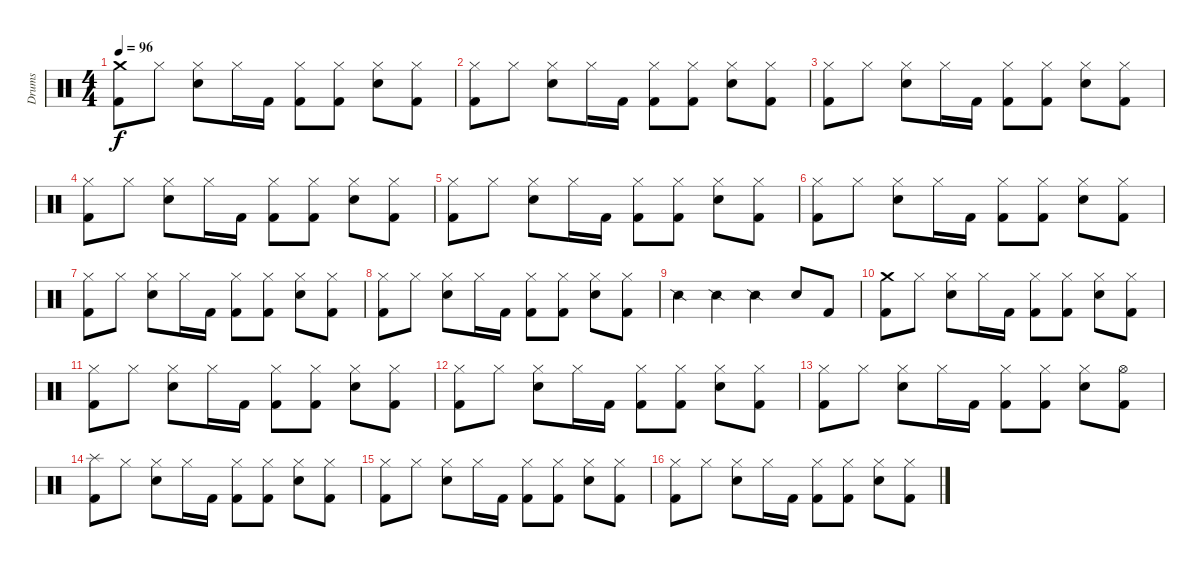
\track ("Drums" "Drums") {instrument percussion}
\staff {score}
\articulation defaults
\ts (4 4)
\tempo 96
\clef neutral
\ks c
("Crash medium (hit)" "Kick (hit) 2").8{dy f} "Hi-Hat (closed)".8 ("Hi-Hat (closed)" "Snare (hit) 2").8 "Hi-Hat (closed)".16 "Kick (hit) 2".16 ("Hi-Hat (closed)" "Kick (hit) 2").8 ("Hi-Hat (closed)" "Kick (hit) 2").8 ("Hi-Hat (closed)" "Snare (hit) 2").8 ("Hi-Hat (closed)" "Kick (hit) 2").8 |
("Hi-Hat (closed)" "Kick (hit) 2").8 "Hi-Hat (closed)".8 ("Hi-Hat (closed)" "Snare (hit) 2").8 "Hi-Hat (closed)".16 "Kick (hit) 2".16 ("Hi-Hat (closed)" "Kick (hit) 2").8 ("Hi-Hat (closed)" "Kick (hit) 2").8 ("Hi-Hat (closed)" "Snare (hit) 2").8 ("Hi-Hat (closed)" "Kick (hit) 2").8 |
("Hi-Hat (closed)" "Kick (hit) 2").8 "Hi-Hat (closed)".8 ("Hi-Hat (closed)" "Snare (hit) 2").8 "Hi-Hat (closed)".16 "Kick (hit) 2".16 ("Hi-Hat (closed)" "Kick (hit) 2").8 ("Hi-Hat (closed)" "Kick (hit) 2").8 ("Hi-Hat (closed)" "Snare (hit) 2").8 ("Hi-Hat (closed)" "Kick (hit) 2").8 |
("Hi-Hat (closed)" "Kick (hit) 2").8 "Hi-Hat (closed)".8 ("Hi-Hat (closed)" "Snare (hit) 2").8 "Hi-Hat (closed)".16 "Kick (hit) 2".16 ("Hi-Hat (closed)" "Kick (hit) 2").8 ("Hi-Hat (closed)" "Kick (hit) 2").8 ("Hi-Hat (closed)" "Snare (hit) 2").8 ("Hi-Hat (closed)" "Kick (hit) 2").8 |
("Hi-Hat (closed)" "Kick (hit) 2").8 "Hi-Hat (closed)".8 ("Hi-Hat (closed)" "Snare (hit) 2").8 "Hi-Hat (closed)".16 "Kick (hit) 2".16 ("Hi-Hat (closed)" "Kick (hit) 2").8 ("Hi-Hat (closed)" "Kick (hit) 2").8 ("Hi-Hat (closed)" "Snare (hit) 2").8 ("Hi-Hat (closed)" "Kick (hit) 2").8 |
("Hi-Hat (closed)" "Kick (hit) 2").8 "Hi-Hat (closed)".8 ("Hi-Hat (closed)" "Snare (hit) 2").8 "Hi-Hat (closed)".16 "Kick (hit) 2".16 ("Hi-Hat (closed)" "Kick (hit) 2").8 ("Hi-Hat (closed)" "Kick (hit) 2").8 ("Hi-Hat (closed)" "Snare (hit) 2").8 ("Hi-Hat (closed)" "Kick (hit) 2").8 |
("Hi-Hat (closed)" "Kick (hit) 2").8 "Hi-Hat (closed)".8 ("Hi-Hat (closed)" "Snare (hit) 2").8 "Hi-Hat (closed)".16 "Kick (hit) 2".16 ("Hi-Hat (closed)" "Kick (hit) 2").8 ("Hi-Hat (closed)" "Kick (hit) 2").8 ("Hi-Hat (closed)" "Snare (hit) 2").8 ("Hi-Hat (closed)" "Kick (hit) 2").8 |
("Hi-Hat (closed)" "Kick (hit) 2").8 "Hi-Hat (closed)".8 ("Hi-Hat (closed)" "Snare (hit) 2").8 "Hi-Hat (closed)".16 "Kick (hit) 2".16 ("Hi-Hat (closed)" "Kick (hit) 2").8 ("Hi-Hat (closed)" "Kick (hit) 2").8 ("Hi-Hat (closed)" "Snare (hit) 2").8 ("Hi-Hat (closed)" "Kick (hit) 2").8 |
"Snare (side stick) 2".4 "Snare (side stick) 2".4 "Snare (side stick) 2".4 "Snare (hit) 2".8 "Kick (hit) 2".8 |
("Crash medium (hit)" "Kick (hit) 2").8 "Hi-Hat (closed)".8 ("Hi-Hat (closed)" "Snare (hit) 2").8 "Hi-Hat (closed)".16 "Kick (hit) 2".16 ("Hi-Hat (closed)" "Kick (hit) 2").8 ("Hi-Hat (closed)" "Kick (hit) 2").8 ("Hi-Hat (closed)" "Snare (hit) 2").8 ("Hi-Hat (closed)" "Kick (hit) 2").8 |
("Hi-Hat (closed)" "Kick (hit) 2").8 "Hi-Hat (closed)".8 ("Hi-Hat (closed)" "Snare (hit) 2").8 "Hi-Hat (closed)".16 "Kick (hit) 2".16 ("Hi-Hat (closed)" "Kick (hit) 2").8 ("Hi-Hat (closed)" "Kick (hit) 2").8 ("Hi-Hat (closed)" "Snare (hit) 2").8 ("Hi-Hat (closed)" "Kick (hit) 2").8 |
("Hi-Hat (closed)" "Kick (hit) 2").8 "Hi-Hat (closed)".8 ("Hi-Hat (closed)" "Snare (hit) 2").8 "Hi-Hat (closed)".16 "Kick (hit) 2".16 ("Hi-Hat (closed)" "Kick (hit) 2").8 ("Hi-Hat (closed)" "Kick (hit) 2").8 ("Hi-Hat (closed)" "Snare (hit) 2").8 ("Hi-Hat (closed)" "Kick (hit) 2").8 |
("Hi-Hat (closed)" "Kick (hit) 2").8 "Hi-Hat (closed)".8 ("Hi-Hat (closed)" "Snare (hit) 2").8 "Hi-Hat (closed)".16 "Kick (hit) 2".16 ("Hi-Hat (closed)" "Kick (hit) 2").8 ("Hi-Hat (closed)" "Kick (hit) 2").8 ("Hi-Hat (closed)" "Snare (hit) 2").8 ("Hi-Hat (open)" "Kick (hit) 2").8 |
("Splash (hit)" "Kick (hit) 2").8 "Hi-Hat (closed)".8 ("Hi-Hat (closed)" "Snare (hit) 2").8 "Hi-Hat (closed)".16 "Kick (hit) 2".16 ("Hi-Hat (closed)" "Kick (hit) 2").8 ("Hi-Hat (closed)" "Kick (hit) 2").8 ("Hi-Hat (closed)" "Snare (hit) 2").8 ("Hi-Hat (closed)" "Kick (hit) 2").8 |
("Hi-Hat (closed)" "Kick (hit) 2").8 "Hi-Hat (closed)".8 ("Hi-Hat (closed)" "Snare (hit) 2").8 "Hi-Hat (closed)".16 "Kick (hit) 2".16 ("Hi-Hat (closed)" "Kick (hit) 2").8 ("Hi-Hat (closed)" "Kick (hit) 2").8 ("Hi-Hat (closed)" "Snare (hit) 2").8 ("Hi-Hat (closed)" "Kick (hit) 2").8 |
("Hi-Hat (closed)" "Kick (hit) 2").8 "Hi-Hat (closed)".8 ("Hi-Hat (closed)" "Snare (hit) 2").8 "Hi-Hat (closed)".16 "Kick (hit) 2".16 ("Hi-Hat (closed)" "Kick (hit) 2").8 ("Hi-Hat (closed)" "Kick (hit) 2").8 ("Hi-Hat (closed)" "Snare (hit) 2").8 ("Hi-Hat (closed)" "Kick (hit) 2").8
